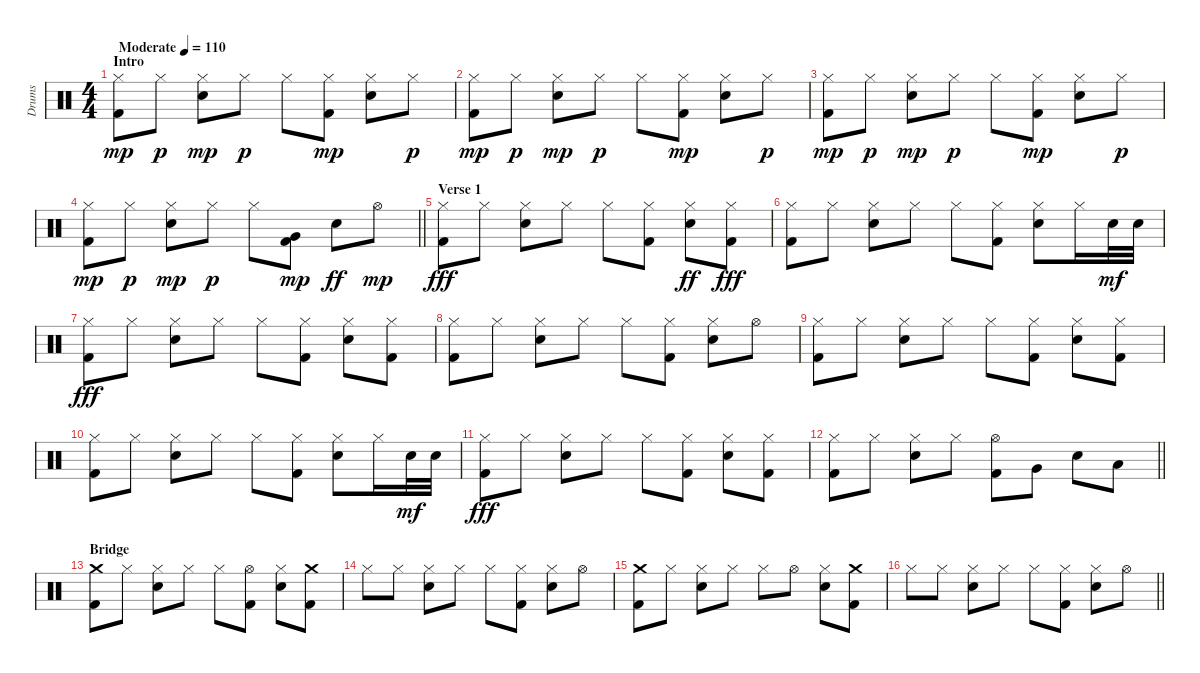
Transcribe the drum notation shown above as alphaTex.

\track ("Drums" "Drums") {instrument percussion}
\staff {score}
\articulation defaults
\ts (4 4)
\section ("" "Intro")
\tempo (110 "Moderate")
\clef neutral
\ks c
("Hi-Hat (closed)" "Kick (hit) 2").8{dy mp volume 10} "Hi-Hat (closed)".8{dy p} ("Hi-Hat (closed)" "Snare (hit) 2").8{dy mp} "Hi-Hat (closed)".8{dy p} "Hi-Hat (closed)".8 ("Hi-Hat (closed)" "Kick (hit) 2").8{dy mp} ("Hi-Hat (closed)" "Snare (hit) 2").8 "Hi-Hat (closed)".8{dy p} |
("Hi-Hat (closed)" "Kick (hit) 2").8{dy mp} "Hi-Hat (closed)".8{dy p} ("Hi-Hat (closed)" "Snare (hit) 2").8{dy mp} "Hi-Hat (closed)".8{dy p} "Hi-Hat (closed)".8 ("Hi-Hat (closed)" "Kick (hit) 2").8{dy mp} ("Hi-Hat (closed)" "Snare (hit) 2").8 "Hi-Hat (closed)".8{dy p} |
("Hi-Hat (closed)" "Kick (hit) 2").8{dy mp} "Hi-Hat (closed)".8{dy p} ("Hi-Hat (closed)" "Snare (hit) 2").8{dy mp} "Hi-Hat (closed)".8{dy p} "Hi-Hat (closed)".8 ("Hi-Hat (closed)" "Kick (hit) 2").8{dy mp} ("Hi-Hat (closed)" "Snare (hit) 2").8 "Hi-Hat (closed)".8{dy p} |
\barLineRight lightlight
("Hi-Hat (closed)" "Kick (hit) 2").8{dy mp} "Hi-Hat (closed)".8{dy p} ("Hi-Hat (closed)" "Snare (hit) 2").8{dy mp} "Hi-Hat (closed)".8{dy p} "Hi-Hat (closed)".8 ("Very Low Tom (hit)" "Kick (hit) 2").8{dy mp volume 14} "Snare (hit) 2".8{dy ff} "Hi-Hat (open)".8{dy mp} |
\section ("" "Verse 1")
("Hi-Hat (closed)" "Kick (hit) 2").8{dy fff} "Hi-Hat (closed)".8 ("Hi-Hat (closed)" "Electric Snare (hit)").8 "Hi-Hat (closed)".8 "Hi-Hat (closed)".8 ("Hi-Hat (closed)" "Kick (hit) 2").8 ("Hi-Hat (closed)" "Electric Snare (hit)").8{dy ff} ("Hi-Hat (closed)" "Kick (hit) 2").8{dy fff} |
("Hi-Hat (closed)" "Kick (hit) 2").8 "Hi-Hat (closed)".8 ("Hi-Hat (closed)" "Electric Snare (hit)").8 "Hi-Hat (closed)".8 "Hi-Hat (closed)".8 ("Hi-Hat (closed)" "Kick (hit) 2").8 ("Hi-Hat (closed)" "Electric Snare (hit)").8 "Hi-Hat (closed)".16 "Electric Snare (hit)".32{dy mf} "Electric Snare (hit)".32 |
("Hi-Hat (closed)" "Kick (hit) 2").8{dy fff} "Hi-Hat (closed)".8 ("Hi-Hat (closed)" "Electric Snare (hit)").8 "Hi-Hat (closed)".8 "Hi-Hat (closed)".8 ("Hi-Hat (closed)" "Kick (hit) 2").8 ("Hi-Hat (closed)" "Electric Snare (hit)").8 ("Hi-Hat (closed)" "Kick (hit) 2").8 |
("Hi-Hat (closed)" "Kick (hit) 2").8 "Hi-Hat (closed)".8 ("Hi-Hat (closed)" "Electric Snare (hit)").8 "Hi-Hat (closed)".8 "Hi-Hat (closed)".8 ("Hi-Hat (closed)" "Kick (hit) 2").8 ("Hi-Hat (closed)" "Electric Snare (hit)").8 "Hi-Hat (open)".8 |
("Hi-Hat (closed)" "Kick (hit) 2").8 "Hi-Hat (closed)".8 ("Hi-Hat (closed)" "Electric Snare (hit)").8 "Hi-Hat (closed)".8 "Hi-Hat (closed)".8 ("Hi-Hat (closed)" "Kick (hit) 2").8 ("Hi-Hat (closed)" "Electric Snare (hit)").8 ("Hi-Hat (closed)" "Kick (hit) 2").8 |
("Hi-Hat (closed)" "Kick (hit) 2").8 "Hi-Hat (closed)".8 ("Hi-Hat (closed)" "Electric Snare (hit)").8 "Hi-Hat (closed)".8 "Hi-Hat (closed)".8 ("Hi-Hat (closed)" "Kick (hit) 2").8 ("Hi-Hat (closed)" "Electric Snare (hit)").8 "Hi-Hat (closed)".16 "Electric Snare (hit)".32{dy mf} "Electric Snare (hit)".32 |
("Hi-Hat (closed)" "Kick (hit) 2").8{dy fff} "Hi-Hat (closed)".8 ("Hi-Hat (closed)" "Electric Snare (hit)").8 "Hi-Hat (closed)".8 "Hi-Hat (closed)".8 ("Hi-Hat (closed)" "Kick (hit) 2").8 ("Hi-Hat (closed)" "Electric Snare (hit)").8 ("Hi-Hat (closed)" "Kick (hit) 2").8 |
\barLineRight lightlight
("Hi-Hat (closed)" "Kick (hit) 2").8 "Hi-Hat (closed)".8 ("Hi-Hat (closed)" "Electric Snare (hit)").8 "Hi-Hat (closed)".8 ("Hi-Hat (open)" "Kick (hit) 2").8 "Very Low Tom (hit)".8 "Electric Snare (hit)".8 "Low Tom (hit)".8 |
\section ("" "Bridge")
("Crash medium (hit)" "Kick (hit) 2").8 "Hi-Hat (closed)".8 ("Hi-Hat (closed)" "Electric Snare (hit)").8 "Hi-Hat (closed)".8 "Hi-Hat (closed)".8 ("Hi-Hat (open)" "Kick (hit) 2").8 ("Hi-Hat (closed)" "Electric Snare (hit)").8 ("Crash medium (hit)" "Kick (hit) 2").8 |
"Hi-Hat (closed)".8 "Hi-Hat (closed)".8 ("Hi-Hat (closed)" "Electric Snare (hit)").8 "Hi-Hat (closed)".8 "Hi-Hat (closed)".8 ("Hi-Hat (closed)" "Kick (hit) 2").8 ("Hi-Hat (closed)" "Electric Snare (hit)").8 "Hi-Hat (open)".8 |
("Crash medium (hit)" "Kick (hit) 2").8 "Hi-Hat (closed)".8 ("Hi-Hat (closed)" "Electric Snare (hit)").8 "Hi-Hat (closed)".8 "Hi-Hat (closed)".8 "Hi-Hat (open)".8 ("Hi-Hat (closed)" "Electric Snare (hit)").8 ("Crash medium (hit)" "Kick (hit) 2").8 |
\barLineRight lightlight "Hi-Hat (closed)".8 "Hi-Hat (closed)".8
("Hi-Hat (closed)" "Electric Snare (hit)").8 "Hi-Hat (closed)".8 "Hi-Hat (closed)".8 ("Hi-Hat (closed)" "Kick (hit) 2").8 ("Hi-Hat (closed)" "Electric Snare (hit)").8 "Hi-Hat (open)".8
